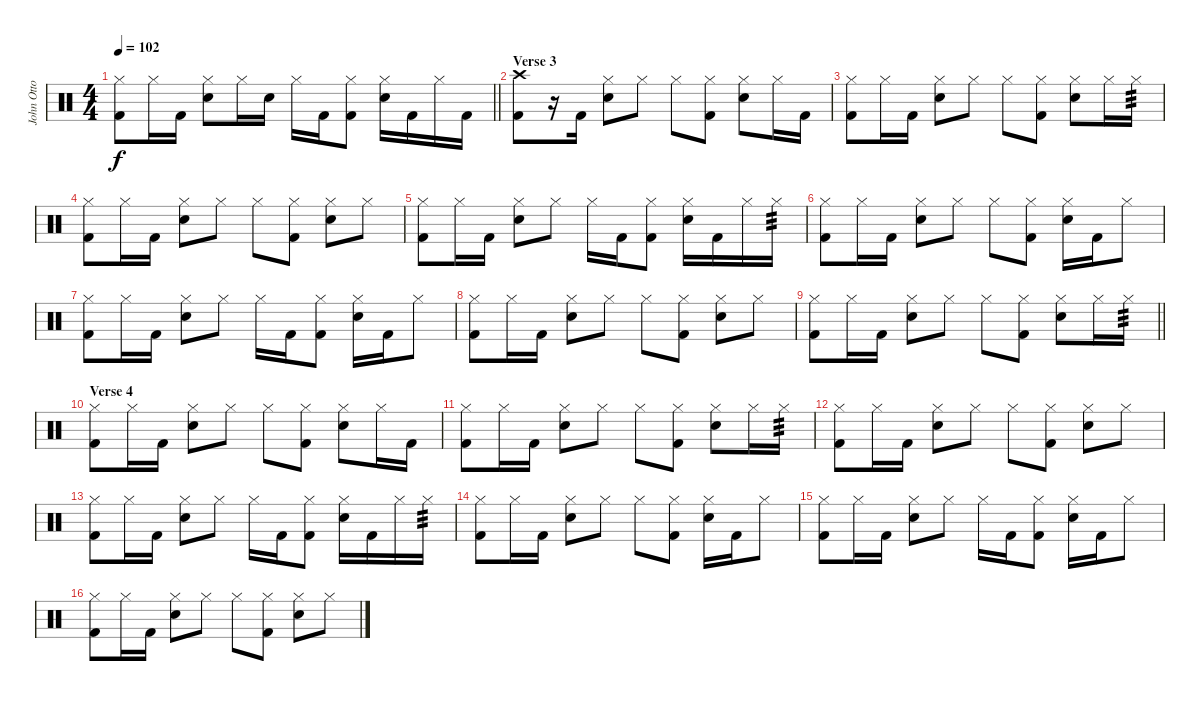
\track ("John Otto (Drums)" "John Otto ") {instrument percussion}
\staff {score}
\articulation defaults
\ts (4 4)
\tempo 102
\clef neutral
\barLineRight lightlight
\ks c
("Hi-Hat (closed)" "Kick (hit) 2").8{dy f} "Hi-Hat (closed)".16 "Kick (hit) 2".16 ("Hi-Hat (closed)" "Snare (hit) 2").8 "Hi-Hat (closed)".16 "Snare (hit) 2".16 "Hi-Hat (closed)".16 "Kick (hit) 2".16 ("Hi-Hat (closed)" "Kick (hit) 2").8 ("Hi-Hat (closed)" "Snare (hit) 2").16 "Kick (hit) 2".16 "Hi-Hat (closed)".16 "Kick (hit) 2".16 |
\section ("" "Verse 3")
("Crash high (hit)" "Kick (hit) 2").8 r.16 "Kick (hit) 2".16 ("Hi-Hat (closed)" "Snare (hit) 2").8 "Hi-Hat (closed)".8 "Hi-Hat (closed)".8 ("Hi-Hat (closed)" "Kick (hit) 2").8 ("Hi-Hat (closed)" "Snare (hit) 2").8 "Hi-Hat (closed)".16 "Kick (hit) 2".16 |
("Hi-Hat (closed)" "Kick (hit) 2").8 "Hi-Hat (closed)".16 "Kick (hit) 2".16 ("Hi-Hat (closed)" "Snare (hit) 2").8 "Hi-Hat (closed)".8 "Hi-Hat (closed)".8 ("Hi-Hat (closed)" "Kick (hit) 2").8 ("Hi-Hat (closed)" "Snare (hit) 2").8 "Hi-Hat (closed)".16 "Hi-Hat (closed)".16{tp 3} |
("Hi-Hat (closed)" "Kick (hit) 2").8 "Hi-Hat (closed)".16 "Kick (hit) 2".16 ("Hi-Hat (closed)" "Snare (hit) 2").8 "Hi-Hat (closed)".8 "Hi-Hat (closed)".8 ("Hi-Hat (closed)" "Kick (hit) 2").8 ("Hi-Hat (closed)" "Snare (hit) 2").8 "Hi-Hat (closed)".8 |
("Hi-Hat (closed)" "Kick (hit) 2").8 "Hi-Hat (closed)".16 "Kick (hit) 2".16 ("Hi-Hat (closed)" "Snare (hit) 2").8 "Hi-Hat (closed)".8 "Hi-Hat (closed)".16 "Kick (hit) 2".16 ("Hi-Hat (closed)" "Kick (hit) 2").8 ("Hi-Hat (closed)" "Snare (hit) 2").16 "Kick (hit) 2".16 "Hi-Hat (closed)".16 "Hi-Hat (closed)".16{tp 3} |
("Hi-Hat (closed)" "Kick (hit) 2").8 "Hi-Hat (closed)".16 "Kick (hit) 2".16 ("Hi-Hat (closed)" "Snare (hit) 2").8 "Hi-Hat (closed)".8 "Hi-Hat (closed)".8 ("Hi-Hat (closed)" "Kick (hit) 2").8 ("Hi-Hat (closed)" "Snare (hit) 2").16 "Kick (hit) 2".16 "Hi-Hat (closed)".8 |
("Hi-Hat (closed)" "Kick (hit) 2").8 "Hi-Hat (closed)".16 "Kick (hit) 2".16 ("Hi-Hat (closed)" "Snare (hit) 2").8 "Hi-Hat (closed)".8 "Hi-Hat (closed)".16 "Kick (hit) 2".16 ("Hi-Hat (closed)" "Kick (hit) 2").8 ("Hi-Hat (closed)" "Snare (hit) 2").16 "Kick (hit) 2".16 "Hi-Hat (closed)".8 |
("Hi-Hat (closed)" "Kick (hit) 2").8 "Hi-Hat (closed)".16 "Kick (hit) 2".16 ("Hi-Hat (closed)" "Snare (hit) 2").8 "Hi-Hat (closed)".8 "Hi-Hat (closed)".8 ("Hi-Hat (closed)" "Kick (hit) 2").8 ("Hi-Hat (closed)" "Snare (hit) 2").8 "Hi-Hat (closed)".8 |
\barLineRight lightlight
("Hi-Hat (closed)" "Kick (hit) 2").8 "Hi-Hat (closed)".16 "Kick (hit) 2".16 ("Hi-Hat (closed)" "Snare (hit) 2").8 "Hi-Hat (closed)".8 "Hi-Hat (closed)".8 ("Hi-Hat (closed)" "Kick (hit) 2").8 ("Hi-Hat (closed)" "Snare (hit) 2").8 "Hi-Hat (closed)".16 "Hi-Hat (closed)".16{tp 3} |
\section ("" "Verse 4")
("Hi-Hat (closed)" "Kick (hit) 2").8 "Hi-Hat (closed)".16 "Kick (hit) 2".16 ("Hi-Hat (closed)" "Snare (hit) 2").8 "Hi-Hat (closed)".8 "Hi-Hat (closed)".8 ("Hi-Hat (closed)" "Kick (hit) 2").8 ("Hi-Hat (closed)" "Snare (hit) 2").8 "Hi-Hat (closed)".16 "Kick (hit) 2".16 |
("Hi-Hat (closed)" "Kick (hit) 2").8 "Hi-Hat (closed)".16 "Kick (hit) 2".16 ("Hi-Hat (closed)" "Snare (hit) 2").8 "Hi-Hat (closed)".8 "Hi-Hat (closed)".8 ("Hi-Hat (closed)" "Kick (hit) 2").8 ("Hi-Hat (closed)" "Snare (hit) 2").8 "Hi-Hat (closed)".16 "Hi-Hat (closed)".16{tp 3} |
("Hi-Hat (closed)" "Kick (hit) 2").8 "Hi-Hat (closed)".16 "Kick (hit) 2".16 ("Hi-Hat (closed)" "Snare (hit) 2").8 "Hi-Hat (closed)".8 "Hi-Hat (closed)".8 ("Hi-Hat (closed)" "Kick (hit) 2").8 ("Hi-Hat (closed)" "Snare (hit) 2").8 "Hi-Hat (closed)".8 |
("Hi-Hat (closed)" "Kick (hit) 2").8 "Hi-Hat (closed)".16 "Kick (hit) 2".16 ("Hi-Hat (closed)" "Snare (hit) 2").8 "Hi-Hat (closed)".8 "Hi-Hat (closed)".16 "Kick (hit) 2".16 ("Hi-Hat (closed)" "Kick (hit) 2").8 ("Hi-Hat (closed)" "Snare (hit) 2").16 "Kick (hit) 2".16 "Hi-Hat (closed)".16 "Hi-Hat (closed)".16{tp 3} |
("Hi-Hat (closed)" "Kick (hit) 2").8 "Hi-Hat (closed)".16 "Kick (hit) 2".16 ("Hi-Hat (closed)" "Snare (hit) 2").8 "Hi-Hat (closed)".8 "Hi-Hat (closed)".8 ("Hi-Hat (closed)" "Kick (hit) 2").8 ("Hi-Hat (closed)" "Snare (hit) 2").16 "Kick (hit) 2".16 "Hi-Hat (closed)".8 |
("Hi-Hat (closed)" "Kick (hit) 2").8 "Hi-Hat (closed)".16 "Kick (hit) 2".16 ("Hi-Hat (closed)" "Snare (hit) 2").8 "Hi-Hat (closed)".8 "Hi-Hat (closed)".16 "Kick (hit) 2".16 ("Hi-Hat (closed)" "Kick (hit) 2").8 ("Hi-Hat (closed)" "Snare (hit) 2").16 "Kick (hit) 2".16 "Hi-Hat (closed)".8 |
("Hi-Hat (closed)" "Kick (hit) 2").8 "Hi-Hat (closed)".16 "Kick (hit) 2".16 ("Hi-Hat (closed)" "Snare (hit) 2").8 "Hi-Hat (closed)".8 "Hi-Hat (closed)".8 ("Hi-Hat (closed)" "Kick (hit) 2").8 ("Hi-Hat (closed)" "Snare (hit) 2").8 "Hi-Hat (closed)".8
